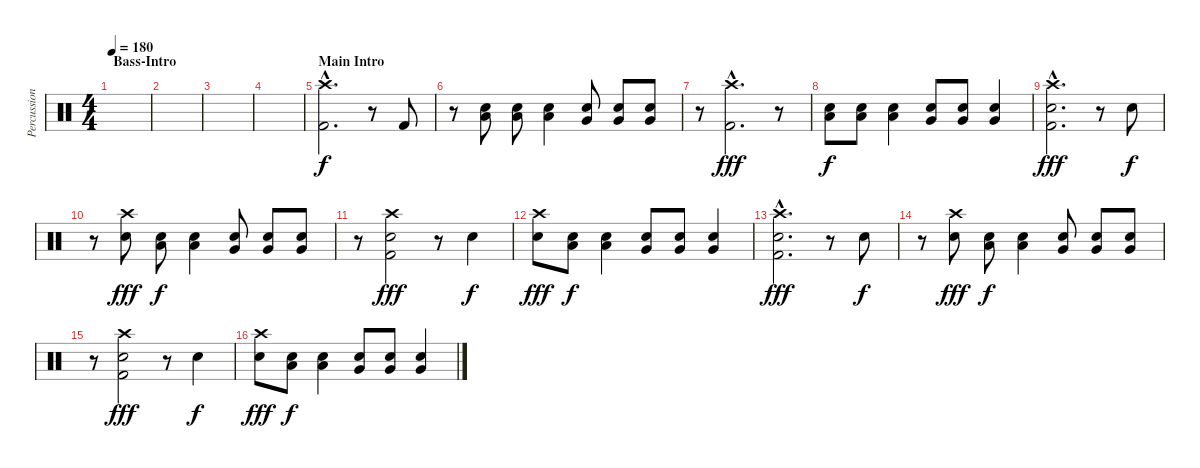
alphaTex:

\track ("Percussion" "Percussion") {instrument percussion}
\staff {score}
\articulation defaults
\ts (4 4)
\section ("" "Bass-Intro")
\tempo 180
\clef neutral
\ks c
|
|
|
|
\section ("" "Main Intro")
("Crash high (hit)"{hac} "Kick (hit) 2"{hac}).2{d} r.8 "Kick (hit) 2".8{dy f} |
r.8 ("Low Tom (hit)" "Electric Snare (hit)").8 ("Low Tom (hit)" "Electric Snare (hit)").8 ("Low Tom (hit)" "Electric Snare (hit)").4 ("Very Low Tom (hit)" "Electric Snare (hit)").8 ("Very Low Tom (hit)" "Electric Snare (hit)").8 ("Very Low Tom (hit)" "Electric Snare (hit)").8 |
r.8 ("Crash high (hit)"{hac} "Kick (hit) 2"{hac}).2{d dy fff} r.8 |
("Low Tom (hit)" "Electric Snare (hit)").8{dy f} ("Low Tom (hit)" "Electric Snare (hit)").8 ("Low Tom (hit)" "Electric Snare (hit)").4 ("Very Low Tom (hit)" "Electric Snare (hit)").8 ("Very Low Tom (hit)" "Electric Snare (hit)").8 ("Very Low Tom (hit)" "Electric Snare (hit)").4 |
("Crash high (hit)"{hac} "Electric Snare (hit)"{hac} "Kick (hit) 2"{hac}).2{d dy fff} r.8 "Electric Snare (hit)".8{dy f} |
r.8 ("Crash high (hit)" "Electric Snare (hit)").8{dy fff} ("Low Tom (hit)" "Electric Snare (hit)").8{dy f} ("Low Tom (hit)" "Electric Snare (hit)").4 ("Very Low Tom (hit)" "Electric Snare (hit)").8 ("Very Low Tom (hit)" "Electric Snare (hit)").8 ("Very Low Tom (hit)" "Electric Snare (hit)").8 |
r.8 ("Crash high (hit)" "Electric Snare (hit)" "Kick (hit) 2").2{dy fff} r.8 "Electric Snare (hit)".4{dy f} |
("Crash high (hit)" "Electric Snare (hit)").8{dy fff} ("Low Tom (hit)" "Electric Snare (hit)").8{dy f} ("Low Tom (hit)" "Electric Snare (hit)").4 ("Very Low Tom (hit)" "Electric Snare (hit)").8 ("Very Low Tom (hit)" "Electric Snare (hit)").8 ("Very Low Tom (hit)" "Electric Snare (hit)").4 |
("Crash high (hit)"{hac} "Electric Snare (hit)"{hac} "Kick (hit) 2"{hac}).2{d dy fff} r.8 "Electric Snare (hit)".8{dy f} |
r.8 ("Crash high (hit)" "Electric Snare (hit)").8{dy fff} ("Low Tom (hit)" "Electric Snare (hit)").8{dy f} ("Low Tom (hit)" "Electric Snare (hit)").4 ("Very Low Tom (hit)" "Electric Snare (hit)").8 ("Very Low Tom (hit)" "Electric Snare (hit)").8 ("Very Low Tom (hit)" "Electric Snare (hit)").8 |
r.8 ("Crash high (hit)" "Electric Snare (hit)" "Kick (hit) 2").2{dy fff} r.8 "Electric Snare (hit)".4{dy f} |
("Crash high (hit)" "Electric Snare (hit)").8{dy fff} ("Low Tom (hit)" "Electric Snare (hit)").8{dy f} ("Low Tom (hit)" "Electric Snare (hit)").4 ("Very Low Tom (hit)" "Electric Snare (hit)").8 ("Very Low Tom (hit)" "Electric Snare (hit)").8 ("Very Low Tom (hit)" "Electric Snare (hit)").4
